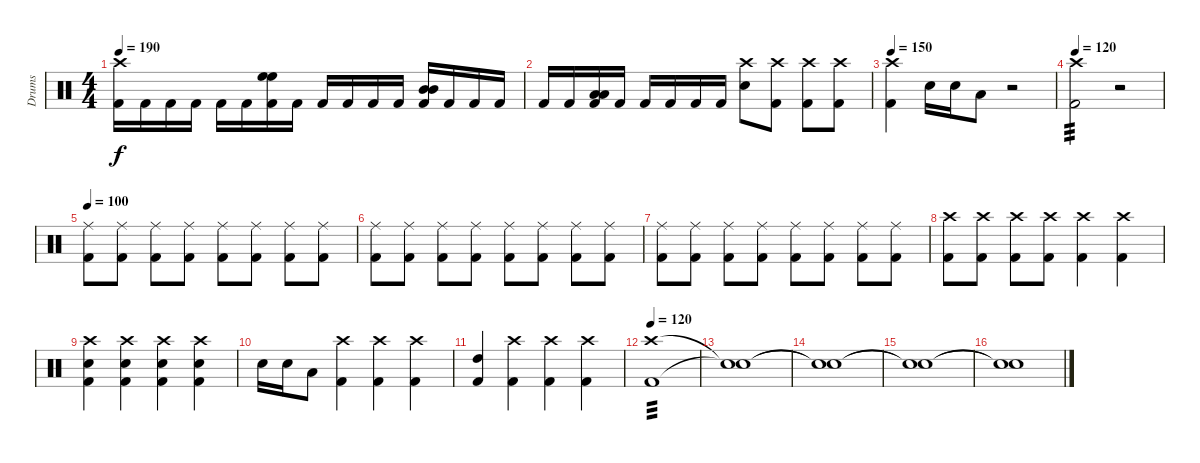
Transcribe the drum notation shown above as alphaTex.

\track ("Drums" "Drums") {instrument percussion}
\staff {score}
\articulation defaults
\ts (4 4)
\tempo 190
\clef neutral
\ks c
("Crash high (hit)" "Kick (hit) 2").16{dy f} "Kick (hit) 2".16 "Kick (hit) 2".16 "Kick (hit) 2".16 "Kick (hit) 2".16 "Kick (hit) 2".16 ("High Floor Tom (hit)" "High Floor Tom (hit)" "Kick (hit) 2").16 "Kick (hit) 2".16 "Kick (hit) 2".16 "Kick (hit) 2".16 "Kick (hit) 2".16 "Kick (hit) 2".16 ("Mid Tom (hit)" "Mid Tom (hit)" "Kick (hit) 2").16 "Kick (hit) 2".16 "Kick (hit) 2".16 "Kick (hit) 2".16 |
"Kick (hit) 2".16 "Kick (hit) 2".16 ("Low Tom (hit)" "Low Tom (hit)" "Kick (hit) 2").16 "Kick (hit) 2".16 "Kick (hit) 2".16 "Kick (hit) 2".16 "Kick (hit) 2".16 "Kick (hit) 2".16 ("Crash high (hit)" "Snare (hit) 2").8 ("Crash high (hit)" "Kick (hit) 2").8 ("Crash high (hit)" "Kick (hit) 2").8 ("Crash high (hit)" "Kick (hit) 2").8 |
\tempo 150
("Crash high (hit)" "Kick (hit) 2").4 "Snare (hit) 2".16 "Snare (hit) 2".16 "Low Floor Tom (hit)".8 r.2 |
\tempo 120
("Crash high (hit)" "Kick (hit) 2").2{tp 3} r.2 |
\tempo 100
("Ride (middle)" "Kick (hit) 2").8 ("Ride (middle)" "Kick (hit) 2").8 ("Ride (middle)" "Kick (hit) 2").8 ("Ride (middle)" "Kick (hit) 2").8 ("Ride (middle)" "Kick (hit) 2").8 ("Ride (middle)" "Kick (hit) 2").8 ("Ride (middle)" "Kick (hit) 2").8 ("Ride (middle)" "Kick (hit) 2").8 |
("Ride (middle)" "Kick (hit) 2").8 ("Ride (middle)" "Kick (hit) 2").8 ("Ride (middle)" "Kick (hit) 2").8 ("Ride (middle)" "Kick (hit) 2").8 ("Ride (middle)" "Kick (hit) 2").8 ("Ride (middle)" "Kick (hit) 2").8 ("Ride (middle)" "Kick (hit) 2").8 ("Ride (middle)" "Kick (hit) 2").8 |
("Ride (middle)" "Kick (hit) 2").8 ("Ride (middle)" "Kick (hit) 2").8 ("Ride (middle)" "Kick (hit) 2").8 ("Ride (middle)" "Kick (hit) 2").8 ("Ride (middle)" "Kick (hit) 2").8 ("Ride (middle)" "Kick (hit) 2").8 ("Ride (middle)" "Kick (hit) 2").8 ("Ride (middle)" "Kick (hit) 2").8 |
("Crash high (hit)" "Kick (hit) 2").8 ("Crash high (hit)" "Kick (hit) 2").8 ("Crash high (hit)" "Kick (hit) 2").8 ("Crash high (hit)" "Kick (hit) 2").8 ("Crash high (hit)" "Kick (hit) 2").4 ("Crash high (hit)" "Kick (hit) 2").4 |
("Crash high (hit)" "Snare (hit) 2" "Kick (hit) 2").4 ("Crash high (hit)" "Snare (hit) 2" "Kick (hit) 2").4 ("Crash high (hit)" "Snare (hit) 2" "Kick (hit) 2").4 ("Crash high (hit)" "Snare (hit) 2" "Kick (hit) 2").4 |
"Snare (hit) 2".16 "Snare (hit) 2".16 "Low Floor Tom (hit)".8 ("Crash high (hit)" "Kick (hit) 2").4 ("Crash high (hit)" "Kick (hit) 2").4 ("Crash high (hit)" "Kick (hit) 2").4 |
("High Tom (hit)" "Kick (hit) 2").4 ("Crash high (hit)" "Kick (hit) 2").4 ("Crash high (hit)" "Kick (hit) 2").4 ("Crash high (hit)" "Kick (hit) 2").4 |
\tempo 120
("Crash high (hit)" "Kick (hit) 2").1{tp 3} |
("Snare (hit)"{t} "Snare (hit)"{t}).1 |
("Snare (hit)"{t} "Snare (hit)"{t}).1 |
("Snare (hit)"{t} "Snare (hit)"{t}).1 |
("Snare (hit)"{t} "Snare (hit)"{t}).1
